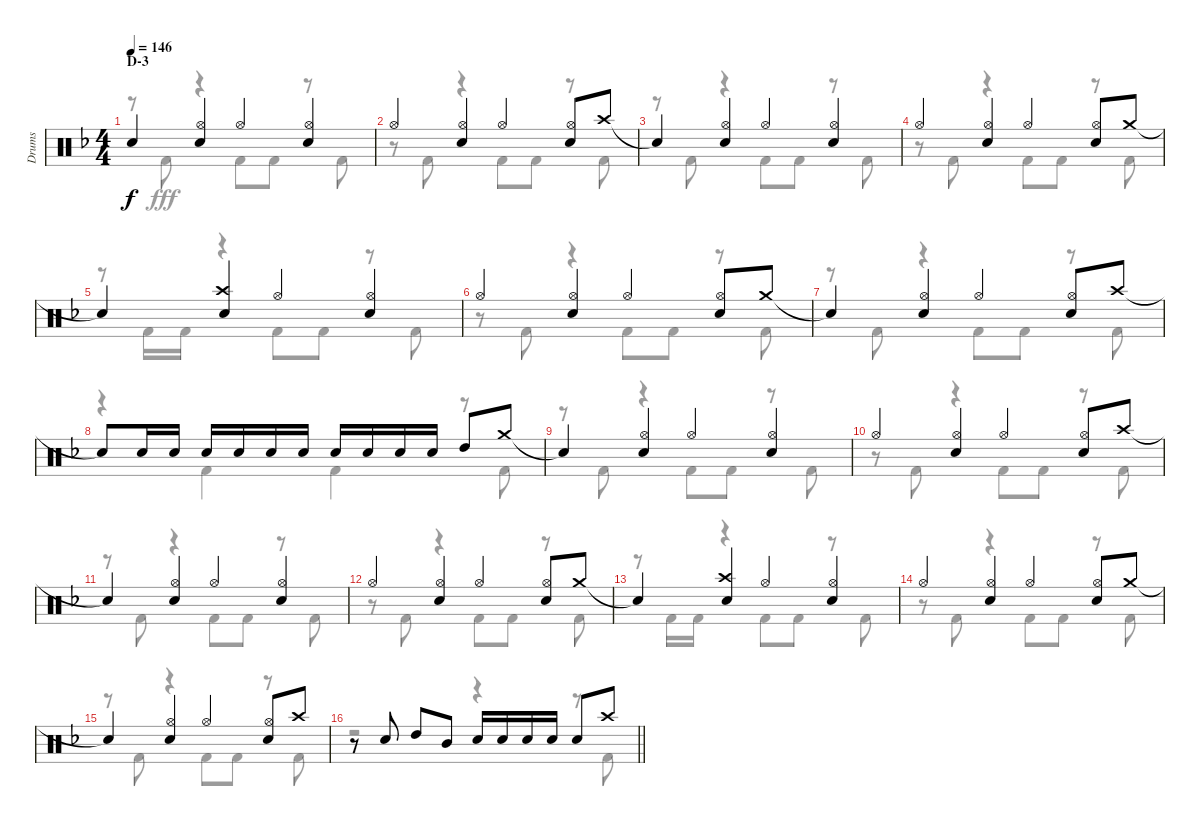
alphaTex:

\track ("Drums" "Drums") {instrument percussion}
\staff {score}
\articulation defaults
\voice
\ts (4 4)
\section ("" "D-3")
\tempo 146
\clef neutral
\ks f "Snare (hit)"{t}.4{dy f}
("Hi-Hat (open)" "Snare (hit) 2").4 "Hi-Hat (open)".4 ("Hi-Hat (open)" "Snare (hit) 2").4 |
"Hi-Hat (open)".4 ("Hi-Hat (open)" "Snare (hit) 2").4 "Hi-Hat (open)".4 ("Hi-Hat (open)" "Snare (hit) 2").8 "Crash high (hit)".8 |
"Snare (hit)"{t}.4 ("Hi-Hat (open)" "Snare (hit) 2").4 "Hi-Hat (open)".4 ("Hi-Hat (open)" "Snare (hit) 2").4 |
"Hi-Hat (open)".4 ("Hi-Hat (open)" "Snare (hit) 2").4 "Hi-Hat (open)".4 ("Hi-Hat (open)" "Snare (hit) 2").8 "Crash medium (hit)".8 |
"Snare (hit)"{t}.4 ("Crash high (hit)" "Snare (hit) 2").4 "Hi-Hat (open)".4 ("Hi-Hat (open)" "Snare (hit) 2").4 |
"Hi-Hat (open)".4 ("Hi-Hat (open)" "Snare (hit) 2").4 "Hi-Hat (open)".4 ("Hi-Hat (open)" "Snare (hit) 2").8 "Crash medium (hit)".8 |
"Snare (hit)"{t}.4 ("Hi-Hat (open)" "Snare (hit) 2").4 "Hi-Hat (open)".4 ("Hi-Hat (open)" "Snare (hit) 2").8 "Crash high (hit)".8 |
"Snare (hit)"{t}.8 "Snare (hit) 2".16 "Snare (hit) 2".16 "Snare (hit) 2".16 "Snare (hit) 2".16 "Snare (hit) 2".16 "Snare (hit) 2".16 "Snare (hit) 2".16 "Snare (hit) 2".16 "Snare (hit) 2".16 "Snare (hit) 2".16 "High Tom (hit)".8 "Crash medium (hit)".8 |
"Snare (hit)"{t}.4 ("Hi-Hat (open)" "Snare (hit) 2").4 "Hi-Hat (open)".4 ("Hi-Hat (open)" "Snare (hit) 2").4 |
"Hi-Hat (open)".4 ("Hi-Hat (open)" "Snare (hit) 2").4 "Hi-Hat (open)".4 ("Hi-Hat (open)" "Snare (hit) 2").8 "Crash high (hit)".8 |
"Snare (hit)"{t}.4 ("Hi-Hat (open)" "Snare (hit) 2").4 "Hi-Hat (open)".4 ("Hi-Hat (open)" "Snare (hit) 2").4 |
"Hi-Hat (open)".4 ("Hi-Hat (open)" "Snare (hit) 2").4 "Hi-Hat (open)".4 ("Hi-Hat (open)" "Snare (hit) 2").8 "Crash medium (hit)".8 |
"Snare (hit)"{t}.4 ("Crash high (hit)" "Snare (hit) 2").4 "Hi-Hat (open)".4 ("Hi-Hat (open)" "Snare (hit) 2").4 |
"Hi-Hat (open)".4 ("Hi-Hat (open)" "Snare (hit) 2").4 "Hi-Hat (open)".4 ("Hi-Hat (open)" "Snare (hit) 2").8 "Crash medium (hit)".8 |
"Snare (hit)"{t}.4 ("Hi-Hat (open)" "Snare (hit) 2").4 "Hi-Hat (open)".4 ("Hi-Hat (open)" "Snare (hit) 2").8 "Crash high (hit)".8 |
\barLineRight lightlight
r.8 "Snare (hit) 2".8 "High Tom (hit)".8 "Mid Tom (hit)".8 "Snare (hit) 2".16 "Snare (hit) 2".16 "Snare (hit) 2".16 "Snare (hit) 2".16 "Snare (hit) 2".8 "Crash high (hit)".8
\voice
\clef neutral
\ottava regular
\simile none
\ks f
r.8{dy fff} "Kick (hit) 2".8 r.4 "Kick (hit) 2".8 "Kick (hit) 2".8 r.8 "Kick (hit) 2".8 |
r.8 "Kick (hit) 2".8 r.4 "Kick (hit) 2".8 "Kick (hit) 2".8 r.8 "Kick (hit) 2".8 |
r.8 "Kick (hit) 2".8 r.4 "Kick (hit) 2".8 "Kick (hit) 2".8 r.8 "Kick (hit) 2".8 |
r.8 "Kick (hit) 2".8 r.4 "Kick (hit) 2".8 "Kick (hit) 2".8 r.8 "Kick (hit) 2".8 |
r.8 "Kick (hit) 2".16 "Kick (hit) 2".16 r.4 "Kick (hit) 2".8 "Kick (hit) 2".8 r.8 "Kick (hit) 2".8 |
r.8 "Kick (hit) 2".8 r.4 "Kick (hit) 2".8 "Kick (hit) 2".8 r.8 "Kick (hit) 2".8 |
r.8 "Kick (hit) 2".8 r.4 "Kick (hit) 2".8 "Kick (hit) 2".8 r.8 "Kick (hit) 2".8 |
r.4 "Kick (hit) 2".4 "Kick (hit) 2".4 r.8 "Kick (hit) 2".8 |
r.8 "Kick (hit) 2".8 r.4 "Kick (hit) 2".8 "Kick (hit) 2".8 r.8 "Kick (hit) 2".8 |
r.8 "Kick (hit) 2".8 r.4 "Kick (hit) 2".8 "Kick (hit) 2".8 r.8 "Kick (hit) 2".8 |
r.8 "Kick (hit) 2".8 r.4 "Kick (hit) 2".8 "Kick (hit) 2".8 r.8 "Kick (hit) 2".8 |
r.8 "Kick (hit) 2".8 r.4 "Kick (hit) 2".8 "Kick (hit) 2".8 r.8 "Kick (hit) 2".8 |
r.8 "Kick (hit) 2".16 "Kick (hit) 2".16 r.4 "Kick (hit) 2".8 "Kick (hit) 2".8 r.8 "Kick (hit) 2".8 |
r.8 "Kick (hit) 2".8 r.4 "Kick (hit) 2".8 "Kick (hit) 2".8 r.8 "Kick (hit) 2".8 |
r.8 "Kick (hit) 2".8 r.4 "Kick (hit) 2".8 "Kick (hit) 2".8 r.8 "Kick (hit) 2".8 |
\barLineRight lightlight
r.2 r.4 r.8 "Kick (hit) 2".8
